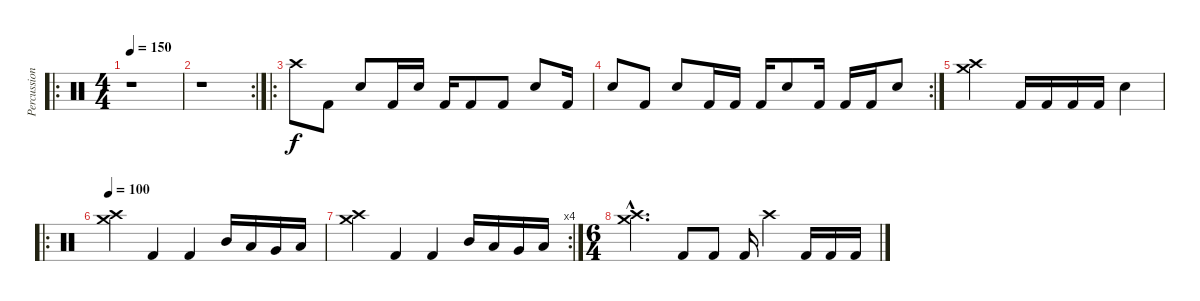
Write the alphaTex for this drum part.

\track ("Percussion" "Percussion") {instrument percussion}
\staff {score}
\articulation defaults
\ro
\ts (4 4)
\tempo 150
\clef neutral
\ks c
r.1{dy f} |
\rc 2
r.1 |
\ro "Crash high (hit)".8 "Kick (hit) 2".8 "Electric Snare (hit)".8 "Kick (hit) 2".16 "Electric Snare (hit)".16 "Kick (hit) 2".16 "Kick (hit) 2".8 "Kick (hit) 2".8 "Electric Snare (hit)".8 "Kick (hit) 2".16
|
\rc 2 "Electric Snare (hit)".8 "Kick (hit) 2".8 "Electric Snare (hit)".8 "Kick (hit) 2".16 "Kick (hit) 2".16 "Kick (hit) 2".16 "Electric Snare (hit)".8 "Kick (hit) 2".16 "Kick (hit) 2".16 "Kick (hit) 2".16 "Electric Snare (hit)".8
|
("Crash high (hit)" "Crash medium (hit)").2 "Kick (hit) 2".16 "Kick (hit) 2".16 "Kick (hit) 2".16 "Kick (hit) 2".16 "Electric Snare (hit)".4 |
\ro
\tempo 100
("Crash high (hit)" "Crash medium (hit)").4 "Kick (hit) 2".4 "Kick (hit) 2".4 "Mid Tom (hit)".16 "Low Tom (hit)".16 "Very Low Tom (hit)".16 "Low Floor Tom (hit)".16 |
\rc 4
("Crash high (hit)" "Crash medium (hit)").4 "Kick (hit) 2".4 "Kick (hit) 2".4 "Mid Tom (hit)".16 "Low Tom (hit)".16 "Very Low Tom (hit)".16 "Low Floor Tom (hit)".16 |
\ts (6 4)
("Crash high (hit)"{hac} "Crash medium (hit)"{hac}).2{d} "Kick (hit) 2".8 "Kick (hit) 2".8 "Kick (hit) 2".16 "Crash high (hit)".4 "Kick (hit) 2".16 "Kick (hit) 2".16 "Kick (hit) 2".16
